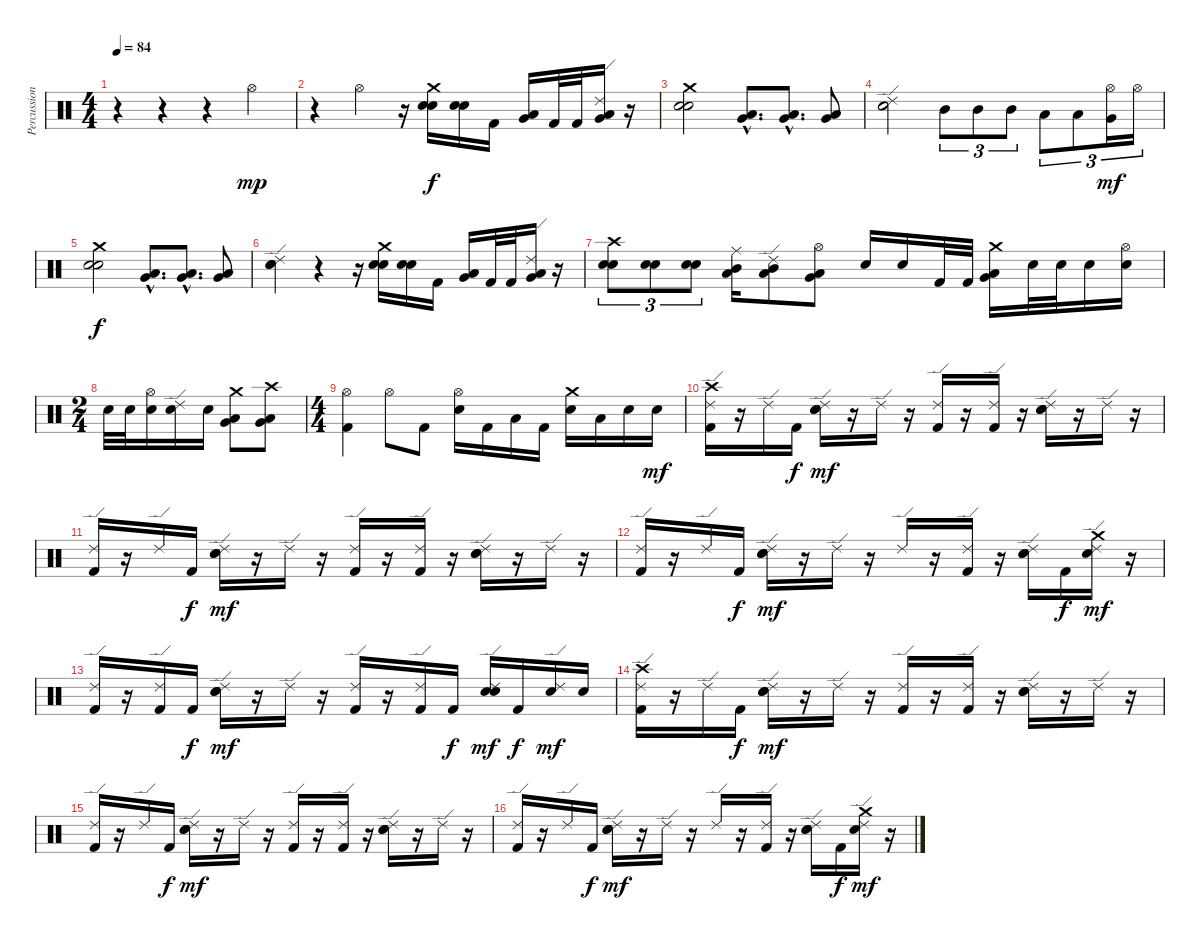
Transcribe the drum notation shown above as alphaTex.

\track ("Percussion" "Percussion") {instrument percussion}
\staff {score}
\articulation defaults
\ts (4 4)
\tempo 84
\clef neutral
\ks c
r.4{dy mf} r.4 r.4 "Hi-Hat (open)".4{dy mp} |
r.4 "Hi-Hat (open)".4 r.16 ("Crash medium (hit)" "Snare (hit) 2" "Electric Snare (hit)").16{dy f} ("Snare (hit) 2" "Electric Snare (hit)").16 "Kick (hit) 2".16 ("Low Tom (hit)" "Very Low Tom (hit)").16 "Kick (hit) 2".32 "Kick (hit) 2".32 ("Ride (edge) 2" "Low Tom (hit)" "Very Low Tom (hit)").16 r.16 |
("Crash medium (hit)" "Snare (hit) 2" "Electric Snare (hit)").2 ("Low Tom (hit)"{hac} "Very Low Tom (hit)"{hac}).8{d} ("Low Tom (hit)"{hac} "Very Low Tom (hit)"{hac}).8{d} ("Low Tom (hit)" "Very Low Tom (hit)").8 |
("Ride (edge) 2" "Snare (hit) 2" "Electric Snare (hit)").2 "Mid Tom (hit)".8{tu (3 2)} "Mid Tom (hit)".8{tu (3 2)} "Mid Tom (hit)".8{tu (3 2)} "Low Tom (hit)".8{tu (3 2)} "Low Tom (hit)".8{tu (3 2)} ("Hi-Hat (open)" "Very Low Tom (hit)").16{tu (3 2) dy mf} "Hi-Hat (open)".16{tu (3 2)} |
("Crash medium (hit)" "Snare (hit) 2" "Electric Snare (hit)").2{dy f} ("Low Tom (hit)"{hac} "Very Low Tom (hit)"{hac}).8{d} ("Low Tom (hit)"{hac} "Very Low Tom (hit)"{hac}).8{d} ("Low Tom (hit)" "Very Low Tom (hit)").8 |
("Ride (edge) 2" "Snare (hit) 2" "Electric Snare (hit)").4 r.4 r.16 ("Crash medium (hit)" "Snare (hit) 2" "Electric Snare (hit)").16 ("Snare (hit) 2" "Electric Snare (hit)").16 "Kick (hit) 2".16 ("Low Tom (hit)" "Very Low Tom (hit)").16 "Kick (hit) 2".32 "Kick (hit) 2".32 ("Ride (edge) 2" "Low Tom (hit)" "Very Low Tom (hit)").16 r.16 |
("Crash high (hit)" "Snare (hit) 2" "Electric Snare (hit)").8{tu (3 2)} ("Snare (hit) 2" "Electric Snare (hit)").8{tu (3 2)} ("Snare (hit) 2" "Electric Snare (hit)").8{tu (3 2)} ("Ride (middle)" "Mid Tom (hit)" "Low Tom (hit)").16 ("Ride (edge) 2" "Mid Tom (hit)" "Low Tom (hit)").8 ("Hi-Hat (open)" "Low Tom (hit)" "Very Low Tom (hit)").8 "Electric Snare (hit)".16 "Electric Snare (hit)".16 "Kick (hit) 2".32 "Kick (hit) 2".32 ("Crash medium (hit)" "Very Low Tom (hit)" "Low Tom (hit)").16 "Electric Snare (hit)".32 "Electric Snare (hit)".32 "Electric Snare (hit)".16 ("Hi-Hat (open)" "Electric Snare (hit)").16 |
\ts (2 4)
"Electric Snare (hit)".32 "Electric Snare (hit)".32 ("Hi-Hat (open)" "Electric Snare (hit)").16 ("Ride (edge) 2" "Electric Snare (hit)").16 "Electric Snare (hit)".16 ("Crash medium (hit)" "Very Low Tom (hit)" "Low Tom (hit)").8 ("Crash high (hit)" "Very Low Tom (hit)" "Low Floor Tom (hit)").8 |
\ts (4 4)
("Hi-Hat (open)" "Kick (hit) 2").4 "Hi-Hat (open)".8 "Kick (hit) 2".8 ("Hi-Hat (open)" "Electric Snare (hit)").16 "Kick (hit) 2".16 "Low Tom (hit)".16 "Kick (hit) 2".16 ("Crash medium (hit)" "Electric Snare (hit)").16 "Low Tom (hit)".16 "Electric Snare (hit)".16 "Electric Snare (hit)".16{dy mf} |
("Ride (edge) 2" "Crash high (hit)" "Kick (hit) 2").16 r.16 "Ride (edge) 2".16 "Kick (hit) 2".16{dy f} ("Ride (edge) 2" "Snare (hit) 2" "Electric Snare (hit)").16{dy mf} r.16 "Ride (edge) 2".16 r.16 ("Ride (edge) 2" "Kick (hit) 2").16 r.16 ("Ride (edge) 2" "Kick (hit) 2").16 r.16 ("Ride (edge) 2" "Snare (hit) 2" "Electric Snare (hit)").16 r.16 "Ride (edge) 2".16 r.16 |
("Ride (edge) 2" "Kick (hit) 2").16 r.16 "Ride (edge) 2".16 "Kick (hit) 2".16{dy f} ("Ride (edge) 2" "Snare (hit) 2" "Electric Snare (hit)").16{dy mf} r.16 "Ride (edge) 2".16 r.16 ("Ride (edge) 2" "Kick (hit) 2").16 r.16 ("Ride (edge) 2" "Kick (hit) 2").16 r.16 ("Ride (edge) 2" "Snare (hit) 2" "Electric Snare (hit)").16 r.16 "Ride (edge) 2".16 r.16 |
("Ride (edge) 2" "Kick (hit) 2").16 r.16 "Ride (edge) 2".16 "Kick (hit) 2".16{dy f} ("Ride (edge) 2" "Snare (hit) 2" "Electric Snare (hit)").16{dy mf} r.16 "Ride (edge) 2".16 r.16 "Ride (edge) 2".16 r.16 ("Ride (edge) 2" "Kick (hit) 2").16 r.16 ("Ride (edge) 2" "Snare (hit) 2" "Electric Snare (hit)").16 "Kick (hit) 2".16{dy f} ("Ride (edge) 2" "Crash medium (hit)" "Electric Snare (hit)").16{dy mf} r.16 |
("Ride (edge) 2" "Kick (hit) 2").16 r.16 ("Ride (edge) 2" "Kick (hit) 2").16 "Kick (hit) 2".16{dy f} ("Ride (edge) 2" "Snare (hit) 2" "Electric Snare (hit)").16{dy mf} r.16 "Ride (edge) 2".16 r.16 ("Ride (edge) 2" "Kick (hit) 2").16 r.16 ("Ride (edge) 2" "Kick (hit) 2").16 "Kick (hit) 2".16{dy f} ("Ride (edge) 2" "Snare (hit) 2" "Electric Snare (hit)").16{dy mf} "Kick (hit) 2".16{dy f} ("Ride (edge) 2" "Electric Snare (hit)").16{dy mf} "Electric Snare (hit)".16 |
("Ride (edge) 2" "Crash high (hit)" "Kick (hit) 2").16 r.16 "Ride (edge) 2".16 "Kick (hit) 2".16{dy f} ("Ride (edge) 2" "Snare (hit) 2" "Electric Snare (hit)").16{dy mf} r.16 "Ride (edge) 2".16 r.16 ("Ride (edge) 2" "Kick (hit) 2").16 r.16 ("Ride (edge) 2" "Kick (hit) 2").16 r.16 ("Ride (edge) 2" "Snare (hit) 2" "Electric Snare (hit)").16 r.16 "Ride (edge) 2".16 r.16 |
("Ride (edge) 2" "Kick (hit) 2").16 r.16 "Ride (edge) 2".16 "Kick (hit) 2".16{dy f} ("Ride (edge) 2" "Snare (hit) 2" "Electric Snare (hit)").16{dy mf} r.16 "Ride (edge) 2".16 r.16 ("Ride (edge) 2" "Kick (hit) 2").16 r.16 ("Ride (edge) 2" "Kick (hit) 2").16 r.16 ("Ride (edge) 2" "Snare (hit) 2" "Electric Snare (hit)").16 r.16 "Ride (edge) 2".16 r.16 |
("Ride (edge) 2" "Kick (hit) 2").16 r.16 "Ride (edge) 2".16 "Kick (hit) 2".16{dy f} ("Ride (edge) 2" "Snare (hit) 2" "Electric Snare (hit)").16{dy mf} r.16 "Ride (edge) 2".16 r.16 "Ride (edge) 2".16 r.16 ("Ride (edge) 2" "Kick (hit) 2").16 r.16 ("Ride (edge) 2" "Snare (hit) 2" "Electric Snare (hit)").16 "Kick (hit) 2".16{dy f} ("Ride (edge) 2" "Crash medium (hit)" "Electric Snare (hit)").16{dy mf} r.16
